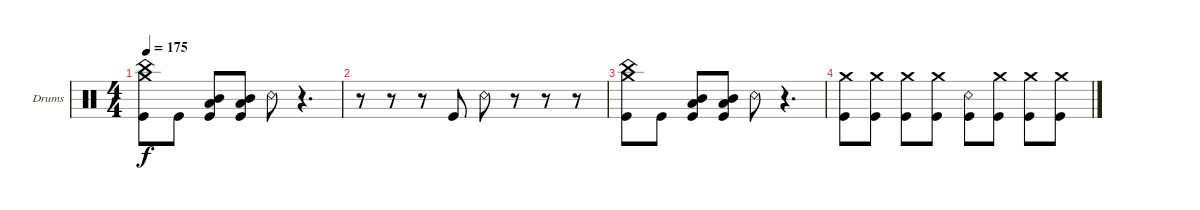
\bracketExtendMode groupsimilarinstruments
\firstSystemTrackNameOrientation horizontal
\otherSystemsTrackNameOrientation horizontal
\track ("Kanky Lora" "Drums") {instrument percussion}
\staff {score}
\articulation defaults
\ts (4 4)
\tempo 175
\clef neutral
\ks c
("Kick (hit)" "Crash medium (hit)" "China (hit)").8{dy f} "Kick (hit)".8 ("Kick (hit)" "Low Tom (hit)" "Mid Tom (hit)").8 ("Kick (hit)" "Mid Tom (hit)" "Low Tom (hit)").8 "Snare (rim shot)".8 r.4{d} |
r.8 r.8 r.8 "Kick (hit)".8 "Snare (rim shot)".8 r.8 r.8 r.8 |
("Kick (hit)" "Crash medium (hit)" "China (hit)").8 "Kick (hit)".8 ("Kick (hit)" "Low Tom (hit)" "Mid Tom (hit)").8 ("Kick (hit)" "Mid Tom (hit)" "Low Tom (hit)").8 "Snare (rim shot)".8 r.4{d} |
("Kick (hit)" "Crash medium (hit)").8 ("Kick (hit)" "Crash medium (hit)").8 ("Kick (hit)" "Crash medium (hit)").8 ("Kick (hit)" "Crash medium (hit)").8 ("Kick (hit)" "Snare (rim shot)").8 ("Kick (hit)" "Crash medium (hit)").8 ("Kick (hit)" "Crash medium (hit)").8 ("Kick (hit)" "Crash medium (hit)").8
